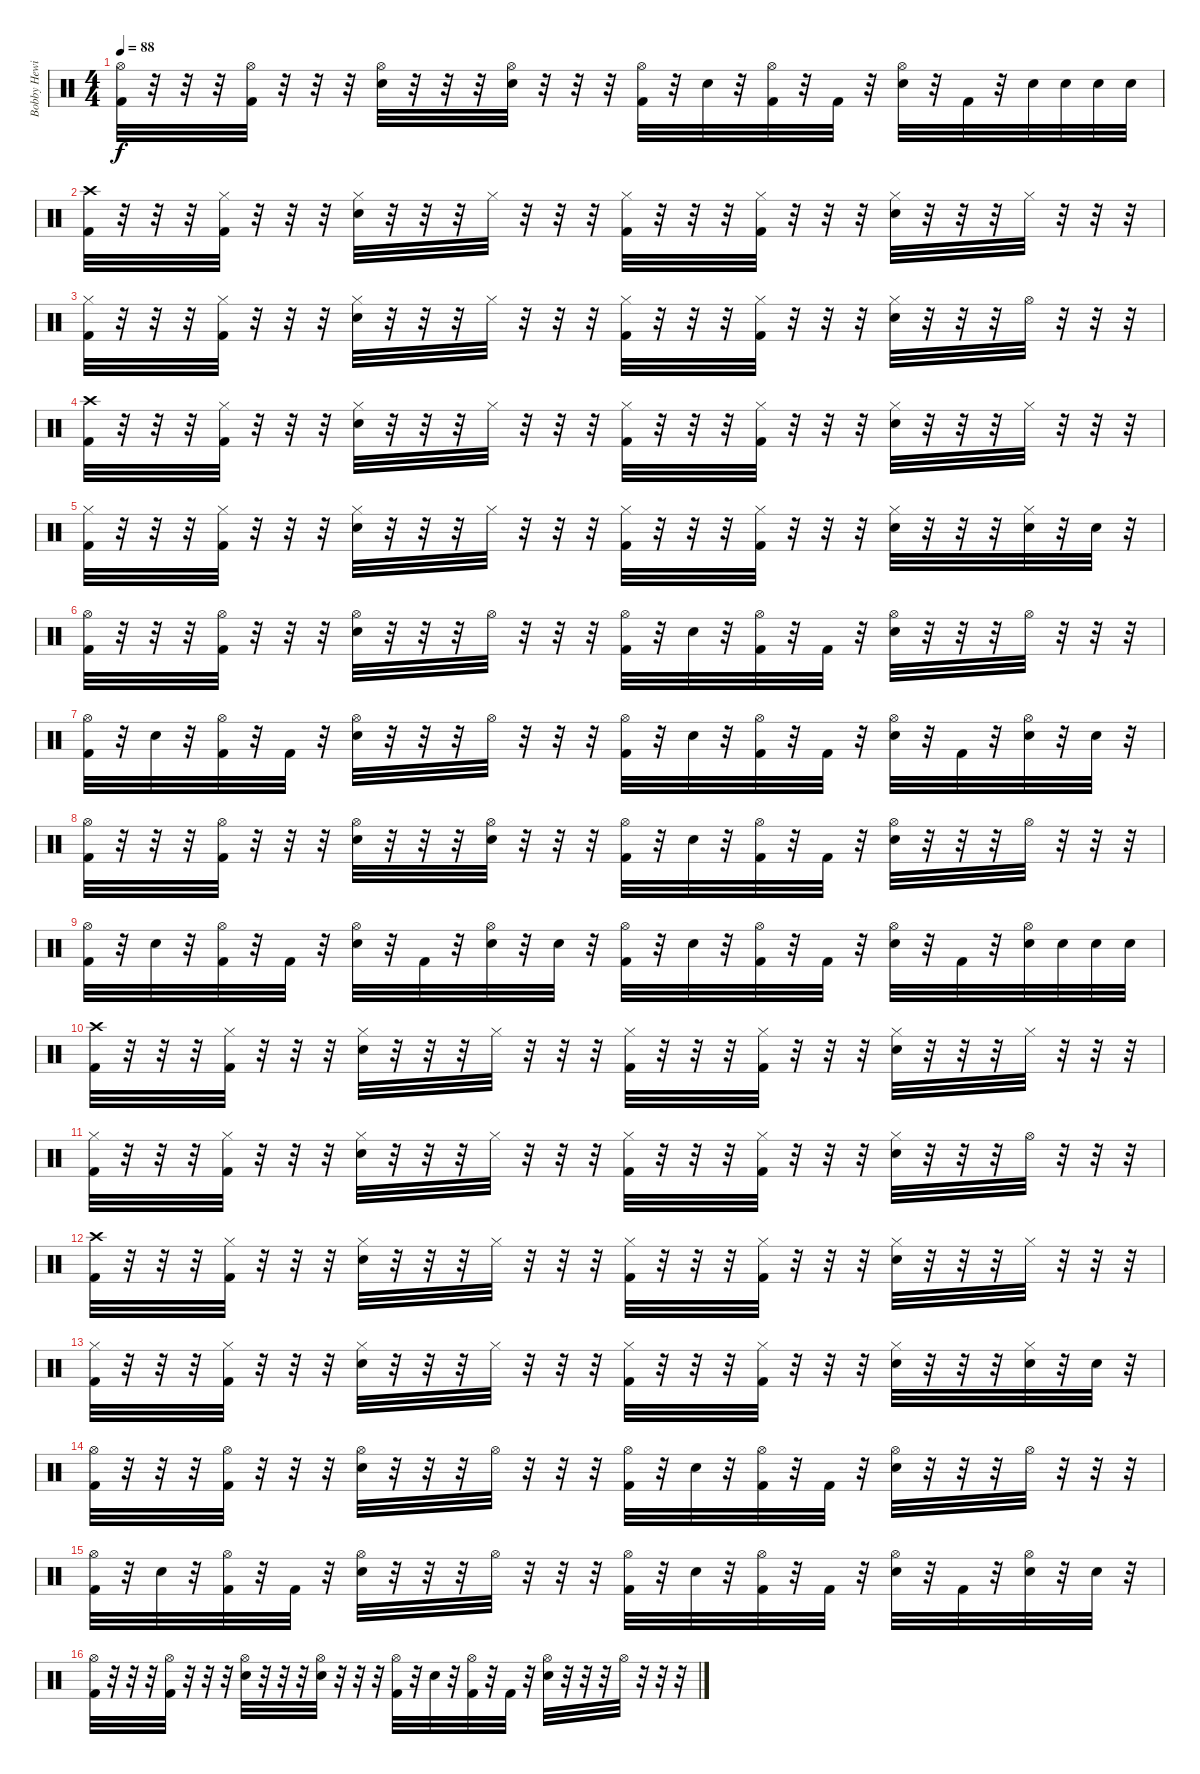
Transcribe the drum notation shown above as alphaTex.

\track ("Bobby Hewit - Drums" "Bobby Hewi") {instrument percussion}
\staff {score}
\articulation defaults
\ts (4 4)
\tempo 88
\clef neutral
\ks c
("Hi-Hat (open)" "Kick (hit) 2").32{dy f} r.32 r.32 r.32 ("Hi-Hat (open)" "Kick (hit) 2").32 r.32 r.32 r.32 ("Hi-Hat (open)" "Electric Snare (hit)").32 r.32 r.32 r.32 ("Hi-Hat (open)" "Electric Snare (hit)").32 r.32 r.32 r.32 ("Hi-Hat (open)" "Kick (hit) 2").32 r.32 "Electric Snare (hit)".32 r.32 ("Hi-Hat (open)" "Kick (hit) 2").32 r.32 "Kick (hit) 2".32 r.32 ("Hi-Hat (open)" "Electric Snare (hit)").32 r.32 "Kick (hit) 2".32 r.32 "Electric Snare (hit)".32 "Electric Snare (hit)".32 "Electric Snare (hit)".32 "Electric Snare (hit)".32 |
("Crash high (hit)" "Kick (hit) 2").32 r.32 r.32 r.32 ("Hi-Hat (closed)" "Kick (hit) 2").32 r.32 r.32 r.32 ("Hi-Hat (closed)" "Electric Snare (hit)").32 r.32 r.32 r.32 "Hi-Hat (closed)".32 r.32 r.32 r.32 ("Hi-Hat (closed)" "Kick (hit) 2").32 r.32 r.32 r.32 ("Hi-Hat (closed)" "Kick (hit) 2").32 r.32 r.32 r.32 ("Hi-Hat (closed)" "Electric Snare (hit)").32 r.32 r.32 r.32 "Hi-Hat (closed)".32 r.32 r.32 r.32 |
("Hi-Hat (closed)" "Kick (hit) 2").32 r.32 r.32 r.32 ("Hi-Hat (closed)" "Kick (hit) 2").32 r.32 r.32 r.32 ("Hi-Hat (closed)" "Electric Snare (hit)").32 r.32 r.32 r.32 "Hi-Hat (closed)".32 r.32 r.32 r.32 ("Hi-Hat (closed)" "Kick (hit) 2").32 r.32 r.32 r.32 ("Hi-Hat (closed)" "Kick (hit) 2").32 r.32 r.32 r.32 ("Hi-Hat (closed)" "Electric Snare (hit)").32 r.32 r.32 r.32 "Hi-Hat (open)".32 r.32 r.32 r.32 |
("Crash high (hit)" "Kick (hit) 2").32 r.32 r.32 r.32 ("Hi-Hat (closed)" "Kick (hit) 2").32 r.32 r.32 r.32 ("Hi-Hat (closed)" "Electric Snare (hit)").32 r.32 r.32 r.32 "Hi-Hat (closed)".32 r.32 r.32 r.32 ("Hi-Hat (closed)" "Kick (hit) 2").32 r.32 r.32 r.32 ("Hi-Hat (closed)" "Kick (hit) 2").32 r.32 r.32 r.32 ("Hi-Hat (closed)" "Electric Snare (hit)").32 r.32 r.32 r.32 "Hi-Hat (closed)".32 r.32 r.32 r.32 |
("Hi-Hat (closed)" "Kick (hit) 2").32 r.32 r.32 r.32 ("Hi-Hat (closed)" "Kick (hit) 2").32 r.32 r.32 r.32 ("Hi-Hat (closed)" "Electric Snare (hit)").32 r.32 r.32 r.32 "Hi-Hat (closed)".32 r.32 r.32 r.32 ("Hi-Hat (closed)" "Kick (hit) 2").32 r.32 r.32 r.32 ("Hi-Hat (closed)" "Kick (hit) 2").32 r.32 r.32 r.32 ("Hi-Hat (closed)" "Electric Snare (hit)").32 r.32 r.32 r.32 ("Hi-Hat (closed)" "Electric Snare (hit)").32 r.32 "Electric Snare (hit)".32 r.32 |
("Hi-Hat (open)" "Kick (hit) 2").32 r.32 r.32 r.32 ("Hi-Hat (open)" "Kick (hit) 2").32 r.32 r.32 r.32 ("Hi-Hat (open)" "Electric Snare (hit)").32 r.32 r.32 r.32 "Hi-Hat (open)".32 r.32 r.32 r.32 ("Hi-Hat (open)" "Kick (hit) 2").32 r.32 "Electric Snare (hit)".32 r.32 ("Hi-Hat (open)" "Kick (hit) 2").32 r.32 "Kick (hit) 2".32 r.32 ("Hi-Hat (open)" "Electric Snare (hit)").32 r.32 r.32 r.32 "Hi-Hat (open)".32 r.32 r.32 r.32 |
("Hi-Hat (open)" "Kick (hit) 2").32 r.32 "Electric Snare (hit)".32 r.32 ("Hi-Hat (open)" "Kick (hit) 2").32 r.32 "Kick (hit) 2".32 r.32 ("Hi-Hat (open)" "Electric Snare (hit)").32 r.32 r.32 r.32 "Hi-Hat (open)".32 r.32 r.32 r.32 ("Hi-Hat (open)" "Kick (hit) 2").32 r.32 "Electric Snare (hit)".32 r.32 ("Hi-Hat (open)" "Kick (hit) 2").32 r.32 "Kick (hit) 2".32 r.32 ("Hi-Hat (open)" "Electric Snare (hit)").32 r.32 "Kick (hit) 2".32 r.32 ("Hi-Hat (open)" "Electric Snare (hit)").32 r.32 "Electric Snare (hit)".32 r.32 |
("Hi-Hat (open)" "Kick (hit) 2").32 r.32 r.32 r.32 ("Hi-Hat (open)" "Kick (hit) 2").32 r.32 r.32 r.32 ("Hi-Hat (open)" "Electric Snare (hit)").32 r.32 r.32 r.32 ("Hi-Hat (open)" "Electric Snare (hit)").32 r.32 r.32 r.32 ("Hi-Hat (open)" "Kick (hit) 2").32 r.32 "Electric Snare (hit)".32 r.32 ("Hi-Hat (open)" "Kick (hit) 2").32 r.32 "Kick (hit) 2".32 r.32 ("Hi-Hat (open)" "Electric Snare (hit)").32 r.32 r.32 r.32 "Hi-Hat (open)".32 r.32 r.32 r.32 |
("Hi-Hat (open)" "Kick (hit) 2").32 r.32 "Electric Snare (hit)".32 r.32 ("Hi-Hat (open)" "Kick (hit) 2").32 r.32 "Kick (hit) 2".32 r.32 ("Hi-Hat (open)" "Electric Snare (hit)").32 r.32 "Kick (hit) 2".32 r.32 ("Hi-Hat (open)" "Electric Snare (hit)").32 r.32 "Electric Snare (hit)".32 r.32 ("Hi-Hat (open)" "Kick (hit) 2").32 r.32 "Electric Snare (hit)".32 r.32 ("Hi-Hat (open)" "Kick (hit) 2").32 r.32 "Kick (hit) 2".32 r.32 ("Hi-Hat (open)" "Electric Snare (hit)").32 r.32 "Kick (hit) 2".32 r.32 ("Hi-Hat (open)" "Electric Snare (hit)").32 "Electric Snare (hit)".32 "Electric Snare (hit)".32 "Electric Snare (hit)".32 |
("Crash high (hit)" "Kick (hit) 2").32 r.32 r.32 r.32 ("Hi-Hat (closed)" "Kick (hit) 2").32 r.32 r.32 r.32 ("Hi-Hat (closed)" "Electric Snare (hit)").32 r.32 r.32 r.32 "Hi-Hat (closed)".32 r.32 r.32 r.32 ("Hi-Hat (closed)" "Kick (hit) 2").32 r.32 r.32 r.32 ("Hi-Hat (closed)" "Kick (hit) 2").32 r.32 r.32 r.32 ("Hi-Hat (closed)" "Electric Snare (hit)").32 r.32 r.32 r.32 "Hi-Hat (closed)".32 r.32 r.32 r.32 |
("Hi-Hat (closed)" "Kick (hit) 2").32 r.32 r.32 r.32 ("Hi-Hat (closed)" "Kick (hit) 2").32 r.32 r.32 r.32 ("Hi-Hat (closed)" "Electric Snare (hit)").32 r.32 r.32 r.32 "Hi-Hat (closed)".32 r.32 r.32 r.32 ("Hi-Hat (closed)" "Kick (hit) 2").32 r.32 r.32 r.32 ("Hi-Hat (closed)" "Kick (hit) 2").32 r.32 r.32 r.32 ("Hi-Hat (closed)" "Electric Snare (hit)").32 r.32 r.32 r.32 "Hi-Hat (open)".32 r.32 r.32 r.32 |
("Crash high (hit)" "Kick (hit) 2").32 r.32 r.32 r.32 ("Hi-Hat (closed)" "Kick (hit) 2").32 r.32 r.32 r.32 ("Hi-Hat (closed)" "Electric Snare (hit)").32 r.32 r.32 r.32 "Hi-Hat (closed)".32 r.32 r.32 r.32 ("Hi-Hat (closed)" "Kick (hit) 2").32 r.32 r.32 r.32 ("Hi-Hat (closed)" "Kick (hit) 2").32 r.32 r.32 r.32 ("Hi-Hat (closed)" "Electric Snare (hit)").32 r.32 r.32 r.32 "Hi-Hat (closed)".32 r.32 r.32 r.32 |
("Hi-Hat (closed)" "Kick (hit) 2").32 r.32 r.32 r.32 ("Hi-Hat (closed)" "Kick (hit) 2").32 r.32 r.32 r.32 ("Hi-Hat (closed)" "Electric Snare (hit)").32 r.32 r.32 r.32 "Hi-Hat (closed)".32 r.32 r.32 r.32 ("Hi-Hat (closed)" "Kick (hit) 2").32 r.32 r.32 r.32 ("Hi-Hat (closed)" "Kick (hit) 2").32 r.32 r.32 r.32 ("Hi-Hat (closed)" "Electric Snare (hit)").32 r.32 r.32 r.32 ("Hi-Hat (closed)" "Electric Snare (hit)").32 r.32 "Electric Snare (hit)".32 r.32 |
("Hi-Hat (open)" "Kick (hit) 2").32 r.32 r.32 r.32 ("Hi-Hat (open)" "Kick (hit) 2").32 r.32 r.32 r.32 ("Hi-Hat (open)" "Electric Snare (hit)").32 r.32 r.32 r.32 "Hi-Hat (open)".32 r.32 r.32 r.32 ("Hi-Hat (open)" "Kick (hit) 2").32 r.32 "Electric Snare (hit)".32 r.32 ("Hi-Hat (open)" "Kick (hit) 2").32 r.32 "Kick (hit) 2".32 r.32 ("Hi-Hat (open)" "Electric Snare (hit)").32 r.32 r.32 r.32 "Hi-Hat (open)".32 r.32 r.32 r.32 |
("Hi-Hat (open)" "Kick (hit) 2").32 r.32 "Electric Snare (hit)".32 r.32 ("Hi-Hat (open)" "Kick (hit) 2").32 r.32 "Kick (hit) 2".32 r.32 ("Hi-Hat (open)" "Electric Snare (hit)").32 r.32 r.32 r.32 "Hi-Hat (open)".32 r.32 r.32 r.32 ("Hi-Hat (open)" "Kick (hit) 2").32 r.32 "Electric Snare (hit)".32 r.32 ("Hi-Hat (open)" "Kick (hit) 2").32 r.32 "Kick (hit) 2".32 r.32 ("Hi-Hat (open)" "Electric Snare (hit)").32 r.32 "Kick (hit) 2".32 r.32 ("Hi-Hat (open)" "Electric Snare (hit)").32 r.32 "Electric Snare (hit)".32 r.32 |
("Hi-Hat (open)" "Kick (hit) 2").32 r.32 r.32 r.32 ("Hi-Hat (open)" "Kick (hit) 2").32 r.32 r.32 r.32 ("Hi-Hat (open)" "Electric Snare (hit)").32 r.32 r.32 r.32 ("Hi-Hat (open)" "Electric Snare (hit)").32 r.32 r.32 r.32 ("Hi-Hat (open)" "Kick (hit) 2").32 r.32 "Electric Snare (hit)".32 r.32 ("Hi-Hat (open)" "Kick (hit) 2").32 r.32 "Kick (hit) 2".32 r.32 ("Hi-Hat (open)" "Electric Snare (hit)").32 r.32 r.32 r.32 "Hi-Hat (open)".32 r.32 r.32 r.32
